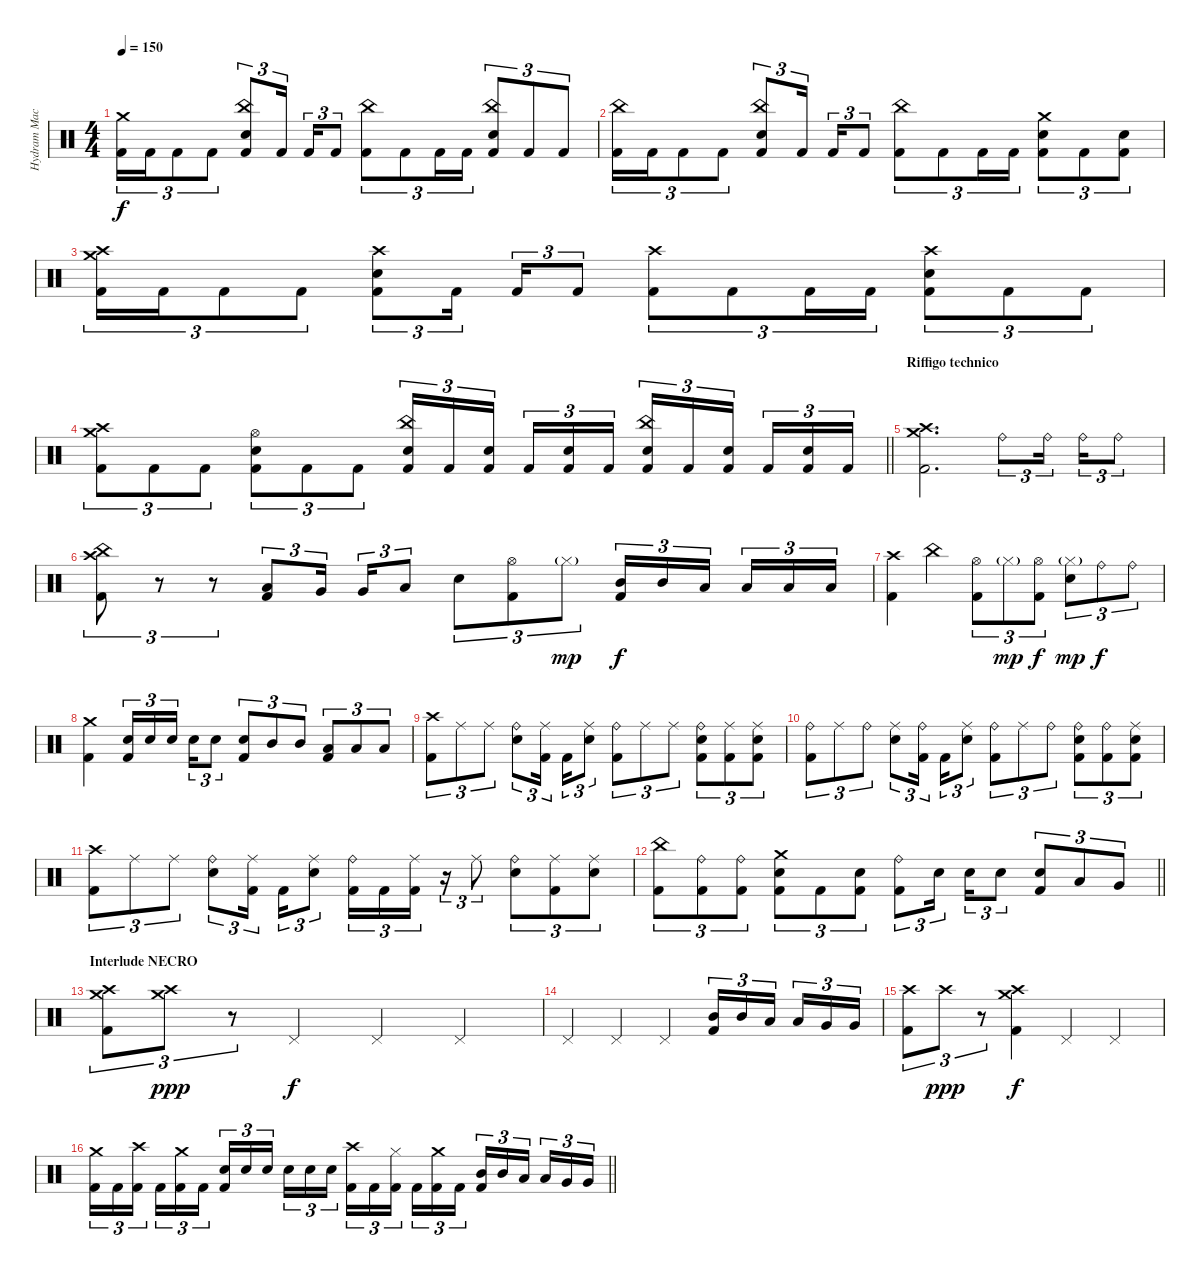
\track ("Hydram Machine" "Hydram Mac") {instrument percussion}
\staff {score}
\articulation defaults
\ts (4 4)
\tempo 150
\clef neutral
\ks c
("Crash medium (hit)" "Kick (hit) 2").16{tu (3 2) dy f} "Kick (hit) 2".16{tu (3 2)} "Kick (hit) 2".8{tu (3 2)} "Kick (hit) 2".8{tu (3 2)} ("China (hit)" "Electric Snare (hit)" "Kick (hit) 2").8{tu (3 2)} "Kick (hit) 2".16{tu (3 2) beam splitsecondary} "Kick (hit) 2".16{tu (3 2)} "Kick (hit) 2".8{tu (3 2)} ("China (hit)" "Kick (hit) 2").8{tu (3 2)} "Kick (hit) 2".8{tu (3 2)} "Kick (hit) 2".16{tu (3 2)} "Kick (hit) 2".16{tu (3 2)} ("China (hit)" "Electric Snare (hit)" "Kick (hit) 2").8{tu (3 2)} "Kick (hit) 2".8{tu (3 2)} "Kick (hit) 2".8{tu (3 2)} |
("China (hit)" "Kick (hit) 2").16{tu (3 2)} "Kick (hit) 2".16{tu (3 2)} "Kick (hit) 2".8{tu (3 2)} "Kick (hit) 2".8{tu (3 2)} ("China (hit)" "Electric Snare (hit)" "Kick (hit) 2").8{tu (3 2)} "Kick (hit) 2".16{tu (3 2) beam splitsecondary} "Kick (hit) 2".16{tu (3 2)} "Kick (hit) 2".8{tu (3 2)} ("China (hit)" "Kick (hit) 2").8{tu (3 2)} "Kick (hit) 2".8{tu (3 2)} "Kick (hit) 2".16{tu (3 2)} "Kick (hit) 2".16{tu (3 2)} ("Crash medium (hit)" "Electric Snare (hit)" "Kick (hit) 2").8{tu (3 2)} "Kick (hit) 2".8{tu (3 2)} ("Electric Snare (hit)" "Kick (hit) 2").8{tu (3 2)} |
("Crash medium (hit)" "Crash high (hit)" "Kick (hit) 2").16{tu (3 2)} "Kick (hit) 2".16{tu (3 2)} "Kick (hit) 2".8{tu (3 2)} "Kick (hit) 2".8{tu (3 2)} ("Crash high (hit)" "Electric Snare (hit)" "Kick (hit) 2").8{tu (3 2)} "Kick (hit) 2".16{tu (3 2) beam splitsecondary} "Kick (hit) 2".16{tu (3 2)} "Kick (hit) 2".8{tu (3 2)} ("Crash high (hit)" "Kick (hit) 2").8{tu (3 2)} "Kick (hit) 2".8{tu (3 2)} "Kick (hit) 2".16{tu (3 2)} "Kick (hit) 2".16{tu (3 2)} ("Crash high (hit)" "Electric Snare (hit)" "Kick (hit) 2").8{tu (3 2)} "Kick (hit) 2".8{tu (3 2)} "Kick (hit) 2".8{tu (3 2)} |
\barLineRight lightlight
("Crash high (hit)" "Crash medium (hit)" "Kick (hit) 2").8{tu (3 2)} "Kick (hit) 2".8{tu (3 2)} "Kick (hit) 2".8{tu (3 2)} ("Hi-Hat (open)" "Electric Snare (hit)" "Kick (hit) 2").8{tu (3 2)} "Kick (hit) 2".8{tu (3 2)} "Kick (hit) 2".8{tu (3 2)} ("China (hit)" "Electric Snare (hit)" "Kick (hit) 2").16{tu (3 2)} "Kick (hit) 2".16{tu (3 2)} ("Electric Snare (hit)" "Kick (hit) 2").16{tu (3 2) beam splitsecondary} "Kick (hit) 2".16{tu (3 2)} ("Electric Snare (hit)" "Kick (hit) 2").16{tu (3 2)} "Kick (hit) 2".16{tu (3 2)} ("China (hit)" "Electric Snare (hit)" "Kick (hit) 2").16{tu (3 2)} "Kick (hit) 2".16{tu (3 2)} ("Electric Snare (hit)" "Kick (hit) 2").16{tu (3 2) beam splitsecondary} "Kick (hit) 2".16{tu (3 2)} ("Electric Snare (hit)" "Kick (hit) 2").16{tu (3 2)} "Kick (hit) 2".16{tu (3 2)} |
\section ("" "Riffigo technico")
("Crash medium (hit)" "Crash high (hit)" "Kick (hit) 2").2{d} "Ride (bell)".8{tu (3 2)} "Ride (bell)".16{tu (3 2) beam splitsecondary} "Ride (bell)".16{tu (3 2)} "Ride (bell)".8{tu (3 2)} |
("China (hit)" "Crash high (hit)" "Kick (hit) 2").8{tu (3 2)} r.8{tu (3 2)} r.8{tu (3 2)} ("Low Tom (hit)" "Kick (hit) 2").8{tu (3 2)} "Very Low Tom (hit)".16{tu (3 2) beam splitsecondary} "Very Low Tom (hit)".16{tu (3 2)} "Low Floor Tom (hit)".8{tu (3 2)} "Electric Snare (hit)".8{tu (3 2)} ("Hi-Hat (open)" "Kick (hit) 2").8{tu (3 2)} "Hi-Hat (closed)"{g}.8{tu (3 2) dy mp} ("Mid Tom (hit)" "Kick (hit) 2").16{tu (3 2) dy f} "Mid Tom (hit)".16{tu (3 2)} "Low Tom (hit)".16{tu (3 2) beam splitsecondary} "Low Tom (hit)".16{tu (3 2)} "Low Tom (hit)".16{tu (3 2)} "Low Tom (hit)".16{tu (3 2)} |
("Crash high (hit)" "Kick (hit) 2").4 "China (hit)".4 ("Hi-Hat (open)" "Kick (hit) 2").8{tu (3 2)} "Hi-Hat (closed)"{g}.8{tu (3 2) dy mp} ("Hi-Hat (open)" "Kick (hit) 2").8{tu (3 2) dy f} ("Hi-Hat (closed)"{g} "Electric Snare (hit)").8{tu (3 2) dy mp} "Ride (bell)".8{tu (3 2) dy f} "Ride (bell)".8{tu (3 2)} |
("Crash medium (hit)" "Kick (hit) 2").4 ("Electric Snare (hit)" "Kick (hit) 2").16{tu (3 2)} "Electric Snare (hit)".16{tu (3 2)} "Electric Snare (hit)".16{tu (3 2) beam splitsecondary} "Electric Snare (hit)".16{tu (3 2)} "Electric Snare (hit)".8{tu (3 2)} ("Electric Snare (hit)" "Kick (hit) 2").8{tu (3 2)} "Mid Tom (hit)".8{tu (3 2)} "Mid Tom (hit)".8{tu (3 2)} ("Low Tom (hit)" "Kick (hit) 2").8{tu (3 2)} "Low Tom (hit)".8{tu (3 2)} "Low Tom (hit)".8{tu (3 2)} |
("Crash high (hit)" "Kick (hit) 2").8{tu (3 2)} "Ride (middle)".8{tu (3 2)} "Ride (middle)".8{tu (3 2)} ("Ride (bell)" "Electric Snare (hit)").8{tu (3 2)} ("Ride (middle)" "Kick (hit) 2").16{tu (3 2) beam splitsecondary} "Kick (hit) 2".16{tu (3 2)} ("Ride (middle)" "Electric Snare (hit)").8{tu (3 2)} ("Ride (bell)" "Kick (hit) 2").8{tu (3 2)} "Ride (middle)".8{tu (3 2)} "Ride (middle)".8{tu (3 2)} ("Ride (bell)" "Electric Snare (hit)" "Kick (hit) 2").8{tu (3 2)} ("Ride (middle)" "Kick (hit) 2").8{tu (3 2)} ("Ride (middle)" "Electric Snare (hit)" "Kick (hit) 2").8{tu (3 2)} |
("Ride (bell)" "Kick (hit) 2").8{tu (3 2)} "Ride (middle)".8{tu (3 2)} "Ride (bell)".8{tu (3 2)} ("Ride (middle)" "Electric Snare (hit)").8{tu (3 2)} ("Ride (bell)" "Kick (hit) 2").16{tu (3 2) beam splitsecondary} "Kick (hit) 2".16{tu (3 2)} ("Ride (middle)" "Electric Snare (hit)").8{tu (3 2)} ("Ride (bell)" "Kick (hit) 2").8{tu (3 2)} "Ride (middle)".8{tu (3 2)} "Ride (bell)".8{tu (3 2)} ("Ride (bell)" "Electric Snare (hit)" "Kick (hit) 2").8{tu (3 2)} ("Ride (bell)" "Kick (hit) 2").8{tu (3 2)} ("Ride (middle)" "Electric Snare (hit)" "Kick (hit) 2").8{tu (3 2)} |
("Crash high (hit)" "Kick (hit) 2").8{tu (3 2)} "Ride (middle)".8{tu (3 2)} "Ride (middle)".8{tu (3 2)} ("Ride (bell)" "Electric Snare (hit)").8{tu (3 2)} ("Ride (middle)" "Kick (hit) 2").16{tu (3 2) beam splitsecondary} "Kick (hit) 2".16{tu (3 2)} ("Ride (middle)" "Electric Snare (hit)").8{tu (3 2)} ("Ride (bell)" "Kick (hit) 2").16{tu (3 2)} "Kick (hit) 2".16{tu (3 2)} ("Ride (middle)" "Kick (hit) 2").16{tu (3 2)} r.16{tu (3 2)} "Ride (middle)".8{tu (3 2)} ("Ride (bell)" "Electric Snare (hit)").8{tu (3 2)} ("Ride (middle)" "Kick (hit) 2").8{tu (3 2)} ("Ride (middle)" "Electric Snare (hit)").8{tu (3 2)} |
\barLineRight lightlight
("China (hit)" "Kick (hit) 2").8{tu (3 2)} ("Ride (bell)" "Kick (hit) 2").8{tu (3 2)} ("Ride (bell)" "Kick (hit) 2").8{tu (3 2)} ("Crash medium (hit)" "Electric Snare (hit)" "Kick (hit) 2").8{tu (3 2)} "Kick (hit) 2".8{tu (3 2)} ("Electric Snare (hit)" "Kick (hit) 2").8{tu (3 2)} ("Ride (bell)" "Kick (hit) 2").8{tu (3 2)} "Electric Snare (hit)".16{tu (3 2) beam splitsecondary} "Electric Snare (hit)".16{tu (3 2)} "Electric Snare (hit)".8{tu (3 2)} ("Electric Snare (hit)" "Kick (hit) 2").8{tu (3 2)} "Low Tom (hit)".8{tu (3 2)} "Very Low Tom (hit)".8{tu (3 2)} |
\section ("" "Interlude NECRO")
("Crash high (hit)" "Crash medium (hit)" "Kick (hit) 2").8{tu (3 2)} ("Crash high (hit)" "Crash medium (hit)").8{tu (3 2) dy ppp} r.8{tu (3 2)} "Pedal Hi-Hat (hit)".4{dy f} "Pedal Hi-Hat (hit)".4 "Pedal Hi-Hat (hit)".4 |
"Pedal Hi-Hat (hit)".4 "Pedal Hi-Hat (hit)".4 "Pedal Hi-Hat (hit)".4 ("Mid Tom (hit)" "Kick (hit) 2").16{tu (3 2)} "Mid Tom (hit)".16{tu (3 2)} "Low Tom (hit)".16{tu (3 2) beam splitsecondary} "Low Tom (hit)".16{tu (3 2)} "Very Low Tom (hit)".16{tu (3 2)} "Very Low Tom (hit)".16{tu (3 2)} |
("Crash high (hit)" "Kick (hit) 2").8{tu (3 2)} "Crash high (hit)".8{tu (3 2) dy ppp} r.8{tu (3 2)} ("Crash high (hit)" "Crash medium (hit)" "Kick (hit) 2").4{dy f} "Pedal Hi-Hat (hit)".4 "Pedal Hi-Hat (hit)".4 |
\barLineRight lightlight
("Crash medium (hit)" "Kick (hit) 2").16{tu (3 2)} "Kick (hit) 2".16{tu (3 2)} ("Crash high (hit)" "Kick (hit) 2").16{tu (3 2) beam splitsecondary} "Kick (hit) 2".16{tu (3 2)} ("Crash medium (hit)" "Kick (hit) 2").16{tu (3 2)} "Kick (hit) 2".16{tu (3 2)} ("Electric Snare (hit)" "Kick (hit) 2").16{tu (3 2)} "Electric Snare (hit)".16{tu (3 2)} "Electric Snare (hit)".16{tu (3 2) beam splitsecondary} "Electric Snare (hit)".16{tu (3 2)} "Electric Snare (hit)".16{tu (3 2)} "Electric Snare (hit)".16{tu (3 2)} ("Crash high (hit)" "Kick (hit) 2").16{tu (3 2)} "Kick (hit) 2".16{tu (3 2)} ("Hi-Hat (closed)" "Kick (hit) 2").16{tu (3 2) beam splitsecondary} "Kick (hit) 2".16{tu (3 2)} ("Crash medium (hit)" "Kick (hit) 2").16{tu (3 2)} "Kick (hit) 2".16{tu (3 2)} ("Mid Tom (hit)" "Kick (hit) 2").16{tu (3 2)} "Mid Tom (hit)".16{tu (3 2)} "Low Tom (hit)".16{tu (3 2) beam splitsecondary} "Low Tom (hit)".16{tu (3 2)} "Very Low Tom (hit)".16{tu (3 2)} "Very Low Tom (hit)".16{tu (3 2)}
